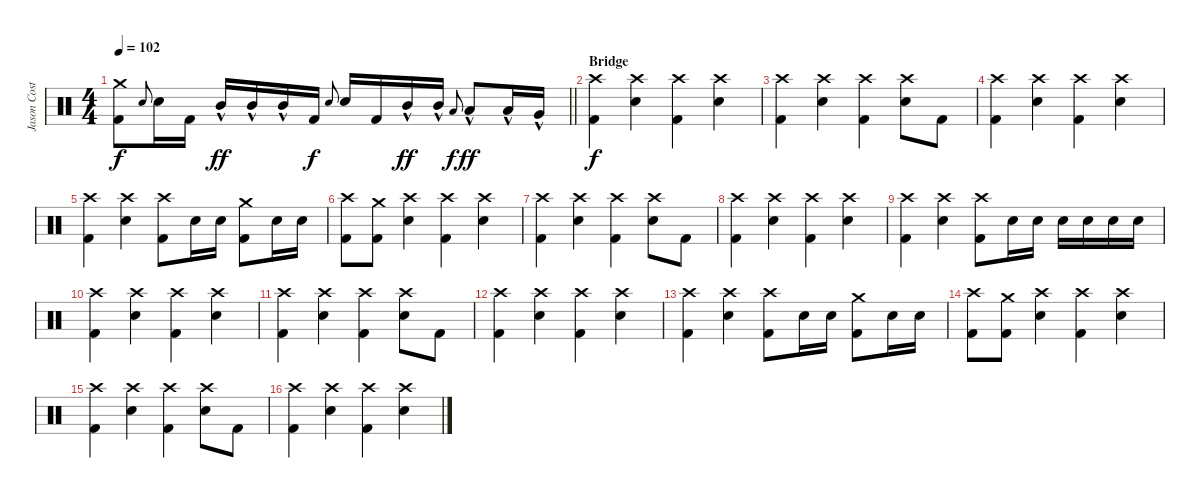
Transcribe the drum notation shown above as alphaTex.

\track ("Jason Costa" "Jason Cost") {instrument percussion}
\staff {score}
\articulation defaults
\ts (4 4)
\tempo 102
\clef neutral
\barLineRight lightlight
\ks c
("Crash medium (hit)" "Kick (hit) 2").8{dy f} "Snare (hit) 2".8{gr onbeat} "Snare (hit) 2".16 "Kick (hit) 2".16 "Mid Tom (hit)"{hac}.16{dy ff} "Mid Tom (hit)"{hac}.16 "Mid Tom (hit)"{hac}.16 "Kick (hit) 2".16{dy f} "Snare (hit) 2".8{gr onbeat} "Snare (hit) 2".16 "Kick (hit) 2".16 "Mid Tom (hit)"{hac}.16{dy ff} "Mid Tom (hit)"{hac}.16 "Low Tom (hit)".8{gr onbeat dy f} "Low Tom (hit)"{hac}.8{dy ff} "Low Tom (hit)"{hac}.16 "Very Low Tom (hit)"{hac}.16 |
\section ("" "Bridge")
("Crash high (hit)" "Kick (hit) 2").4{dy f} ("Crash high (hit)" "Snare (hit) 2").4 ("Crash high (hit)" "Kick (hit) 2").4 ("Crash high (hit)" "Snare (hit) 2").4 |
("Crash high (hit)" "Kick (hit) 2").4 ("Crash high (hit)" "Snare (hit) 2").4 ("Crash high (hit)" "Kick (hit) 2").4 ("Crash high (hit)" "Snare (hit) 2").8 "Kick (hit) 2".8 |
("Crash high (hit)" "Kick (hit) 2").4 ("Crash high (hit)" "Snare (hit) 2").4 ("Crash high (hit)" "Kick (hit) 2").4 ("Crash high (hit)" "Snare (hit) 2").4 |
("Crash high (hit)" "Kick (hit) 2").4 ("Crash high (hit)" "Snare (hit) 2").4 ("Crash high (hit)" "Kick (hit) 2").8 "Snare (hit) 2".16 "Snare (hit) 2".16 ("Crash medium (hit)" "Kick (hit) 2").8 "Snare (hit) 2".16 "Snare (hit) 2".16 |
("Crash high (hit)" "Kick (hit) 2").8 ("Crash medium (hit)" "Kick (hit) 2").8 ("Crash high (hit)" "Snare (hit) 2").4 ("Crash high (hit)" "Kick (hit) 2").4 ("Crash high (hit)" "Snare (hit) 2").4 |
("Crash high (hit)" "Kick (hit) 2").4 ("Crash high (hit)" "Snare (hit) 2").4 ("Crash high (hit)" "Kick (hit) 2").4 ("Crash high (hit)" "Snare (hit) 2").8 "Kick (hit) 2".8 |
("Crash high (hit)" "Kick (hit) 2").4 ("Crash high (hit)" "Snare (hit) 2").4 ("Crash high (hit)" "Kick (hit) 2").4 ("Crash high (hit)" "Snare (hit) 2").4 |
("Crash high (hit)" "Kick (hit) 2").4 ("Crash high (hit)" "Snare (hit) 2").4 ("Crash high (hit)" "Kick (hit) 2").8 "Snare (hit) 2".16 "Snare (hit) 2".16 "Snare (hit) 2".16 "Snare (hit) 2".16 "Snare (hit) 2".16 "Snare (hit) 2".16 |
("Crash high (hit)" "Kick (hit) 2").4 ("Crash high (hit)" "Snare (hit) 2").4 ("Crash high (hit)" "Kick (hit) 2").4 ("Crash high (hit)" "Snare (hit) 2").4 |
("Crash high (hit)" "Kick (hit) 2").4 ("Crash high (hit)" "Snare (hit) 2").4 ("Crash high (hit)" "Kick (hit) 2").4 ("Crash high (hit)" "Snare (hit) 2").8 "Kick (hit) 2".8 |
("Crash high (hit)" "Kick (hit) 2").4 ("Crash high (hit)" "Snare (hit) 2").4 ("Crash high (hit)" "Kick (hit) 2").4 ("Crash high (hit)" "Snare (hit) 2").4 |
("Crash high (hit)" "Kick (hit) 2").4 ("Crash high (hit)" "Snare (hit) 2").4 ("Crash high (hit)" "Kick (hit) 2").8 "Snare (hit) 2".16 "Snare (hit) 2".16 ("Crash medium (hit)" "Kick (hit) 2").8 "Snare (hit) 2".16 "Snare (hit) 2".16 |
("Crash high (hit)" "Kick (hit) 2").8 ("Crash medium (hit)" "Kick (hit) 2").8 ("Crash high (hit)" "Snare (hit) 2").4 ("Crash high (hit)" "Kick (hit) 2").4 ("Crash high (hit)" "Snare (hit) 2").4 |
("Crash high (hit)" "Kick (hit) 2").4 ("Crash high (hit)" "Snare (hit) 2").4 ("Crash high (hit)" "Kick (hit) 2").4 ("Crash high (hit)" "Snare (hit) 2").8 "Kick (hit) 2".8 |
("Crash high (hit)" "Kick (hit) 2").4 ("Crash high (hit)" "Snare (hit) 2").4 ("Crash high (hit)" "Kick (hit) 2").4 ("Crash high (hit)" "Snare (hit) 2").4
